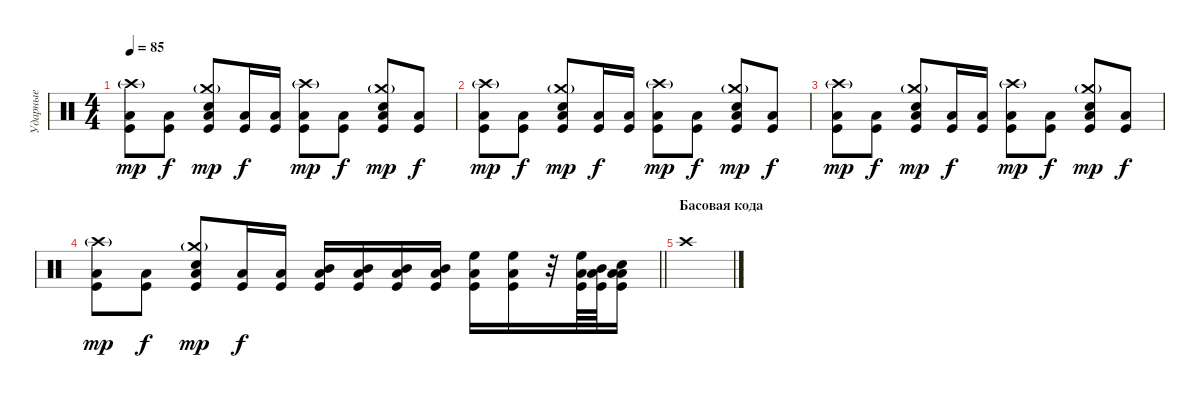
\track ("Ударные" "Ударные") {instrument percussion}
\staff {score}
\articulation defaults
\ts (4 4)
\tempo 85
\clef neutral
\ks c
("Crash high (hit)"{g} "Low Tom (hit)" "Kick (hit)").8{dy mp} ("Low Tom (hit)" "Kick (hit)").8{dy f} ("Crash medium (hit)"{g} "Electric Snare (hit)" "Low Tom (hit)" "Kick (hit)").8{dy mp} ("Low Tom (hit)" "Kick (hit)").16{dy f} ("Low Tom (hit)" "Kick (hit)").16 ("Crash high (hit)"{g} "Low Tom (hit)" "Kick (hit)").8{dy mp} ("Low Tom (hit)" "Kick (hit)").8{dy f} ("Crash medium (hit)"{g} "Electric Snare (hit)" "Low Tom (hit)" "Kick (hit)").8{dy mp} ("Low Tom (hit)" "Kick (hit)").8{dy f} |
("Crash high (hit)"{g} "Low Tom (hit)" "Kick (hit)").8{dy mp} ("Low Tom (hit)" "Kick (hit)").8{dy f} ("Crash medium (hit)"{g} "Electric Snare (hit)" "Low Tom (hit)" "Kick (hit)").8{dy mp} ("Low Tom (hit)" "Kick (hit)").16{dy f} ("Low Tom (hit)" "Kick (hit)").16 ("Crash high (hit)"{g} "Low Tom (hit)" "Kick (hit)").8{dy mp} ("Low Tom (hit)" "Kick (hit)").8{dy f} ("Crash medium (hit)"{g} "Electric Snare (hit)" "Low Tom (hit)" "Kick (hit)").8{dy mp} ("Low Tom (hit)" "Kick (hit)").8{dy f} |
("Crash high (hit)"{g} "Low Tom (hit)" "Kick (hit)").8{dy mp} ("Low Tom (hit)" "Kick (hit)").8{dy f} ("Crash medium (hit)"{g} "Electric Snare (hit)" "Low Tom (hit)" "Kick (hit)").8{dy mp} ("Low Tom (hit)" "Kick (hit)").16{dy f} ("Low Tom (hit)" "Kick (hit)").16 ("Crash high (hit)"{g} "Low Tom (hit)" "Kick (hit)").8{dy mp} ("Low Tom (hit)" "Kick (hit)").8{dy f} ("Crash medium (hit)"{g} "Electric Snare (hit)" "Low Tom (hit)" "Kick (hit)").8{dy mp} ("Low Tom (hit)" "Kick (hit)").8{dy f} |
\barLineRight lightlight
("Crash high (hit)"{g} "Low Tom (hit)" "Kick (hit)").8{dy mp} ("Low Tom (hit)" "Kick (hit)").8{dy f} ("Crash medium (hit)"{g} "Electric Snare (hit)" "Low Tom (hit)" "Kick (hit)").8{dy mp} ("Low Tom (hit)" "Kick (hit)").16{dy f} ("Low Tom (hit)" "Kick (hit)").16 ("Mid Tom (hit)" "Low Tom (hit)" "Kick (hit)").16 ("Mid Tom (hit)" "Low Tom (hit)" "Kick (hit)").16 ("Mid Tom (hit)" "Low Tom (hit)" "Kick (hit)").16 ("Mid Tom (hit)" "Low Tom (hit)" "Kick (hit)").16 ("High Floor Tom (hit)" "Low Tom (hit)" "Kick (hit)").16 ("High Floor Tom (hit)" "Low Tom (hit)" "Kick (hit)").16 r.32 ("High Floor Tom (hit)" "Low Tom (hit)" "Kick (hit)").64 ("Mid Tom (hit)" "Low Tom (hit)" "Kick (hit)").64 ("Electric Snare (hit)" "Low Tom (hit)" "Low Tom (hit)" "Kick (hit)").16 |
\section ("" "Басовая кода")
"Crash high (hit)".1
